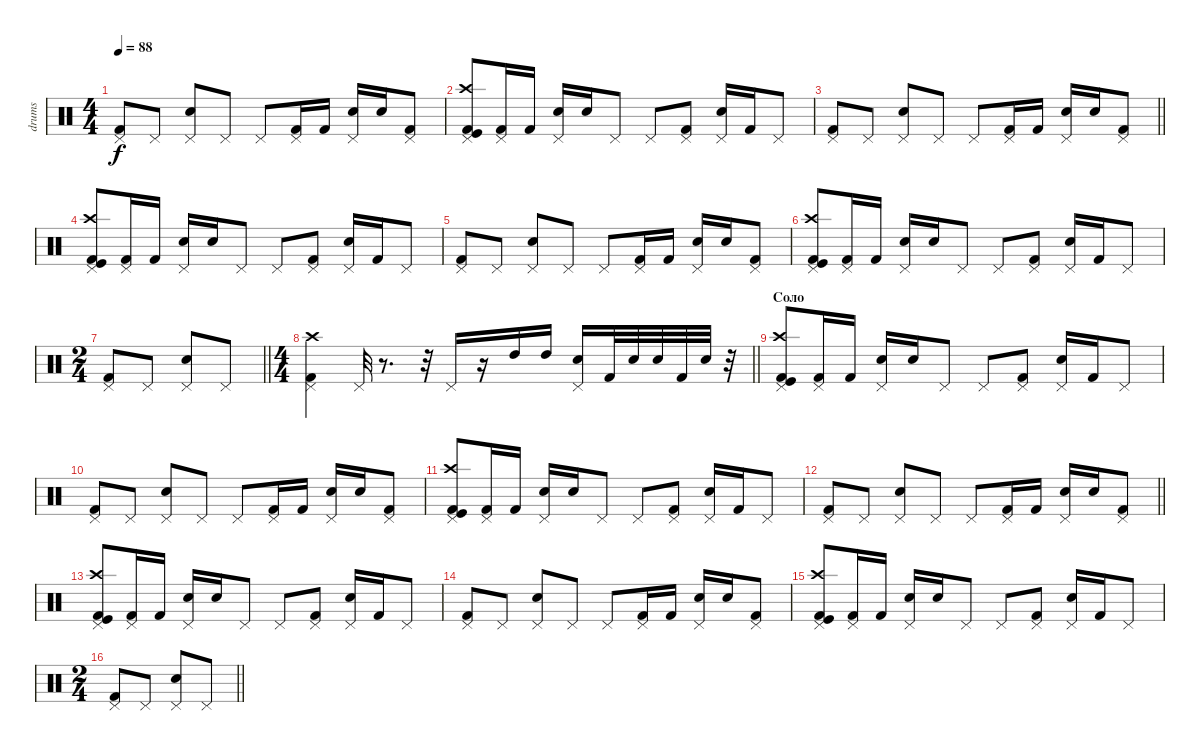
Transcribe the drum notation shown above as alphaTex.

\track ("drums" "drums") {instrument percussion}
\staff {score}
\articulation defaults
\ts (4 4)
\tempo 88
\clef neutral
\ks c
("Pedal Hi-Hat (hit)" "Kick (hit) 2").8{dy f} "Pedal Hi-Hat (hit)".8 ("Snare (hit) 2" "Pedal Hi-Hat (hit)").8 "Pedal Hi-Hat (hit)".8 "Pedal Hi-Hat (hit)".8 ("Pedal Hi-Hat (hit)" "Kick (hit) 2").16 "Kick (hit) 2".16 ("Pedal Hi-Hat (hit)" "Snare (hit) 2").16 "Snare (hit) 2".16 ("Kick (hit) 2" "Pedal Hi-Hat (hit)").8 |
("Crash high (hit)" "Kick (hit) 2" "Pedal Hi-Hat (hit)" "Kick (hit)").8 ("Kick (hit) 2" "Pedal Hi-Hat (hit)").16 "Kick (hit) 2".16 ("Snare (hit) 2" "Pedal Hi-Hat (hit)").16 "Snare (hit) 2".16 "Pedal Hi-Hat (hit)".8 "Pedal Hi-Hat (hit)".8 ("Kick (hit) 2" "Pedal Hi-Hat (hit)").8 ("Pedal Hi-Hat (hit)" "Snare (hit) 2").16 "Kick (hit) 2".16 "Pedal Hi-Hat (hit)".8 |
\barLineRight lightlight
("Kick (hit) 2" "Pedal Hi-Hat (hit)").8 "Pedal Hi-Hat (hit)".8 ("Pedal Hi-Hat (hit)" "Snare (hit) 2").8 "Pedal Hi-Hat (hit)".8 "Pedal Hi-Hat (hit)".8 ("Pedal Hi-Hat (hit)" "Kick (hit) 2").16 "Kick (hit) 2".16 ("Pedal Hi-Hat (hit)" "Snare (hit) 2").16 "Snare (hit) 2".16 ("Pedal Hi-Hat (hit)" "Kick (hit) 2").8 |
("Crash high (hit)" "Kick (hit)" "Kick (hit) 2" "Pedal Hi-Hat (hit)").8 ("Kick (hit) 2" "Pedal Hi-Hat (hit)").16 "Kick (hit) 2".16 ("Snare (hit) 2" "Pedal Hi-Hat (hit)").16 "Snare (hit) 2".16 "Pedal Hi-Hat (hit)".8 "Pedal Hi-Hat (hit)".8 ("Pedal Hi-Hat (hit)" "Kick (hit) 2").8 ("Pedal Hi-Hat (hit)" "Snare (hit) 2").16 "Kick (hit) 2".16 "Pedal Hi-Hat (hit)".8 |
("Kick (hit) 2" "Pedal Hi-Hat (hit)").8 "Pedal Hi-Hat (hit)".8 ("Pedal Hi-Hat (hit)" "Snare (hit) 2").8 "Pedal Hi-Hat (hit)".8 "Pedal Hi-Hat (hit)".8 ("Pedal Hi-Hat (hit)" "Kick (hit) 2").16 "Kick (hit) 2".16 ("Pedal Hi-Hat (hit)" "Snare (hit) 2").16 "Snare (hit) 2".16 ("Kick (hit) 2" "Pedal Hi-Hat (hit)").8 |
("Crash high (hit)" "Kick (hit)" "Kick (hit) 2" "Pedal Hi-Hat (hit)").8 ("Kick (hit) 2" "Pedal Hi-Hat (hit)").16 "Kick (hit) 2".16 ("Snare (hit) 2" "Pedal Hi-Hat (hit)").16 "Snare (hit) 2".16 "Pedal Hi-Hat (hit)".8 "Pedal Hi-Hat (hit)".8 ("Kick (hit) 2" "Pedal Hi-Hat (hit)").8 ("Pedal Hi-Hat (hit)" "Snare (hit) 2").16 "Kick (hit) 2".16 "Pedal Hi-Hat (hit)".8 |
\ts (2 4)
\barLineRight lightlight
("Pedal Hi-Hat (hit)" "Kick (hit) 2").8 "Pedal Hi-Hat (hit)".8 ("Snare (hit) 2" "Pedal Hi-Hat (hit)").8 "Pedal Hi-Hat (hit)".8 |
\ts (4 4)
\barLineRight lightlight
("Pedal Hi-Hat (hit)" "Kick (hit) 2" "Crash high (hit)").4 "Pedal Hi-Hat (hit)".32 r.8{d} r.32 "Pedal Hi-Hat (hit)".16 r.16 "High Tom (hit)".16 "High Tom (hit)".16 ("Pedal Hi-Hat (hit)" "Snare (hit) 2").16 "Kick (hit) 2".32 "Snare (hit) 2".32 "Snare (hit) 2".32 "Kick (hit) 2".32 "Snare (hit) 2".32 r.32 |
\section ("" "Соло")
("Kick (hit)" "Crash high (hit)" "Kick (hit) 2" "Pedal Hi-Hat (hit)").8 ("Kick (hit) 2" "Pedal Hi-Hat (hit)").16 "Kick (hit) 2".16 ("Snare (hit) 2" "Pedal Hi-Hat (hit)").16 "Snare (hit) 2".16 "Pedal Hi-Hat (hit)".8 "Pedal Hi-Hat (hit)".8 ("Pedal Hi-Hat (hit)" "Kick (hit) 2").8 ("Pedal Hi-Hat (hit)" "Snare (hit) 2").16 "Kick (hit) 2".16 "Pedal Hi-Hat (hit)".8 |
("Pedal Hi-Hat (hit)" "Kick (hit) 2").8 "Pedal Hi-Hat (hit)".8 ("Snare (hit) 2" "Pedal Hi-Hat (hit)").8 "Pedal Hi-Hat (hit)".8 "Pedal Hi-Hat (hit)".8 ("Pedal Hi-Hat (hit)" "Kick (hit) 2").16 "Kick (hit) 2".16 ("Pedal Hi-Hat (hit)" "Snare (hit) 2").16 "Snare (hit) 2".16 ("Kick (hit) 2" "Pedal Hi-Hat (hit)").8 |
("Crash high (hit)" "Kick (hit) 2" "Pedal Hi-Hat (hit)" "Kick (hit)").8 ("Kick (hit) 2" "Pedal Hi-Hat (hit)").16 "Kick (hit) 2".16 ("Snare (hit) 2" "Pedal Hi-Hat (hit)").16 "Snare (hit) 2".16 "Pedal Hi-Hat (hit)".8 "Pedal Hi-Hat (hit)".8 ("Kick (hit) 2" "Pedal Hi-Hat (hit)").8 ("Pedal Hi-Hat (hit)" "Snare (hit) 2").16 "Kick (hit) 2".16 "Pedal Hi-Hat (hit)".8 |
\barLineRight lightlight
("Kick (hit) 2" "Pedal Hi-Hat (hit)").8 "Pedal Hi-Hat (hit)".8 ("Pedal Hi-Hat (hit)" "Snare (hit) 2").8 "Pedal Hi-Hat (hit)".8 "Pedal Hi-Hat (hit)".8 ("Pedal Hi-Hat (hit)" "Kick (hit) 2").16 "Kick (hit) 2".16 ("Pedal Hi-Hat (hit)" "Snare (hit) 2").16 "Snare (hit) 2".16 ("Pedal Hi-Hat (hit)" "Kick (hit) 2").8 |
("Crash high (hit)" "Kick (hit)" "Kick (hit) 2" "Pedal Hi-Hat (hit)").8 ("Kick (hit) 2" "Pedal Hi-Hat (hit)").16 "Kick (hit) 2".16 ("Snare (hit) 2" "Pedal Hi-Hat (hit)").16 "Snare (hit) 2".16 "Pedal Hi-Hat (hit)".8 "Pedal Hi-Hat (hit)".8 ("Pedal Hi-Hat (hit)" "Kick (hit) 2").8 ("Pedal Hi-Hat (hit)" "Snare (hit) 2").16 "Kick (hit) 2".16 "Pedal Hi-Hat (hit)".8 |
("Kick (hit) 2" "Pedal Hi-Hat (hit)").8 "Pedal Hi-Hat (hit)".8 ("Pedal Hi-Hat (hit)" "Snare (hit) 2").8 "Pedal Hi-Hat (hit)".8 "Pedal Hi-Hat (hit)".8 ("Pedal Hi-Hat (hit)" "Kick (hit) 2").16 "Kick (hit) 2".16 ("Pedal Hi-Hat (hit)" "Snare (hit) 2").16 "Snare (hit) 2".16 ("Kick (hit) 2" "Pedal Hi-Hat (hit)").8 |
("Crash high (hit)" "Kick (hit)" "Kick (hit) 2" "Pedal Hi-Hat (hit)").8 ("Kick (hit) 2" "Pedal Hi-Hat (hit)").16 "Kick (hit) 2".16 ("Snare (hit) 2" "Pedal Hi-Hat (hit)").16 "Snare (hit) 2".16 "Pedal Hi-Hat (hit)".8 "Pedal Hi-Hat (hit)".8 ("Kick (hit) 2" "Pedal Hi-Hat (hit)").8 ("Pedal Hi-Hat (hit)" "Snare (hit) 2").16 "Kick (hit) 2".16 "Pedal Hi-Hat (hit)".8 |
\ts (2 4)
\barLineRight lightlight
("Pedal Hi-Hat (hit)" "Kick (hit) 2").8 "Pedal Hi-Hat (hit)".8 ("Snare (hit) 2" "Pedal Hi-Hat (hit)").8 "Pedal Hi-Hat (hit)".8
